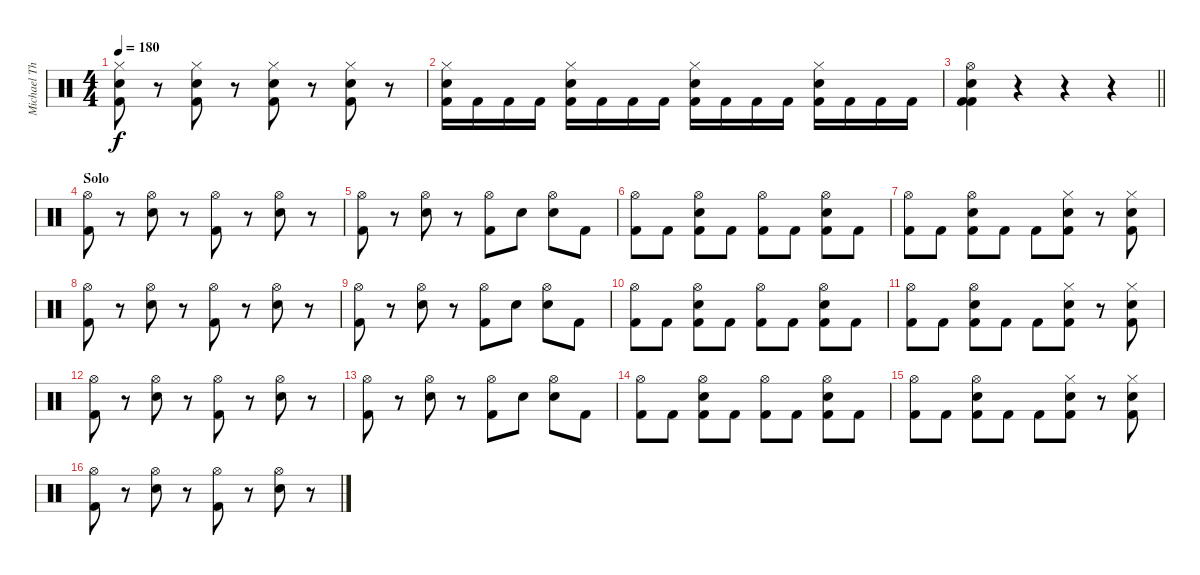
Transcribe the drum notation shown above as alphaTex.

\track ("Michael Thomas" "Michael Th") {instrument percussion}
\staff
\articulation defaults
\ts (4 4)
\tempo 180
\clef neutral
\ks c
("Hi-Hat (closed)" "Electric Snare (hit)" "Kick (hit) 2").8{dy f} r.8 ("Hi-Hat (closed)" "Electric Snare (hit)" "Kick (hit) 2").8 r.8 ("Hi-Hat (closed)" "Electric Snare (hit)" "Kick (hit) 2").8 r.8 ("Hi-Hat (closed)" "Electric Snare (hit)" "Kick (hit) 2").8 r.8 |
("Hi-Hat (closed)" "Electric Snare (hit)" "Kick (hit) 2").16 "Kick (hit) 2".16 "Kick (hit) 2".16 "Kick (hit) 2".16 ("Hi-Hat (closed)" "Electric Snare (hit)" "Kick (hit) 2").16 "Kick (hit) 2".16 "Kick (hit) 2".16 "Kick (hit) 2".16 ("Hi-Hat (closed)" "Electric Snare (hit)" "Kick (hit) 2").16 "Kick (hit) 2".16 "Kick (hit) 2".16 "Kick (hit) 2".16 ("Hi-Hat (closed)" "Electric Snare (hit)" "Kick (hit) 2").16 "Kick (hit) 2".16 "Kick (hit) 2".16 "Kick (hit) 2".16 |
\barLineRight lightlight
("Hi-Hat (open)" "Electric Snare (hit)" "Kick (hit) 2" "Kick (hit) 2").4 r.4 r.4 r.4 |
\section ("" "Solo")
("Hi-Hat (open)" "Kick (hit) 2").8 r.8 ("Hi-Hat (open)" "Electric Snare (hit)").8 r.8 ("Hi-Hat (open)" "Kick (hit) 2").8 r.8 ("Hi-Hat (open)" "Electric Snare (hit)").8 r.8 |
("Hi-Hat (open)" "Kick (hit) 2").8 r.8 ("Hi-Hat (open)" "Electric Snare (hit)").8 r.8 ("Hi-Hat (open)" "Kick (hit) 2").8 "Electric Snare (hit)".8 ("Hi-Hat (open)" "Electric Snare (hit)").8 "Kick (hit) 2".8 |
("Hi-Hat (open)" "Kick (hit) 2").8 "Kick (hit) 2".8 ("Hi-Hat (open)" "Electric Snare (hit)" "Kick (hit) 2").8 "Kick (hit) 2".8 ("Hi-Hat (open)" "Kick (hit) 2").8 "Kick (hit) 2".8 ("Hi-Hat (open)" "Electric Snare (hit)" "Kick (hit) 2").8 "Kick (hit) 2".8 |
("Hi-Hat (open)" "Kick (hit) 2").8 "Kick (hit) 2".8 ("Hi-Hat (open)" "Electric Snare (hit)" "Kick (hit) 2").8 "Kick (hit) 2".8 "Kick (hit) 2".8 ("Hi-Hat (closed)" "Electric Snare (hit)" "Kick (hit) 2").8 r.8 ("Hi-Hat (closed)" "Electric Snare (hit)" "Kick (hit) 2").8 |
("Hi-Hat (open)" "Kick (hit) 2").8 r.8 ("Hi-Hat (open)" "Electric Snare (hit)").8 r.8 ("Hi-Hat (open)" "Kick (hit) 2").8 r.8 ("Hi-Hat (open)" "Electric Snare (hit)").8 r.8 |
("Hi-Hat (open)" "Kick (hit) 2").8 r.8 ("Hi-Hat (open)" "Electric Snare (hit)").8 r.8 ("Hi-Hat (open)" "Kick (hit) 2").8 "Electric Snare (hit)".8 ("Hi-Hat (open)" "Electric Snare (hit)").8 "Kick (hit) 2".8 |
("Hi-Hat (open)" "Kick (hit) 2").8 "Kick (hit) 2".8 ("Hi-Hat (open)" "Electric Snare (hit)" "Kick (hit) 2").8 "Kick (hit) 2".8 ("Hi-Hat (open)" "Kick (hit) 2").8 "Kick (hit) 2".8 ("Hi-Hat (open)" "Electric Snare (hit)" "Kick (hit) 2").8 "Kick (hit) 2".8 |
("Hi-Hat (open)" "Kick (hit) 2").8 "Kick (hit) 2".8 ("Hi-Hat (open)" "Electric Snare (hit)" "Kick (hit) 2").8 "Kick (hit) 2".8 "Kick (hit) 2".8 ("Hi-Hat (closed)" "Electric Snare (hit)" "Kick (hit) 2").8 r.8 ("Hi-Hat (closed)" "Electric Snare (hit)" "Kick (hit) 2").8 |
("Hi-Hat (open)" "Kick (hit) 2").8 r.8 ("Hi-Hat (open)" "Electric Snare (hit)").8 r.8 ("Hi-Hat (open)" "Kick (hit) 2").8 r.8 ("Hi-Hat (open)" "Electric Snare (hit)").8 r.8 |
("Hi-Hat (open)" "Kick (hit) 2").8 r.8 ("Hi-Hat (open)" "Electric Snare (hit)").8 r.8 ("Hi-Hat (open)" "Kick (hit) 2").8 "Electric Snare (hit)".8 ("Hi-Hat (open)" "Electric Snare (hit)").8 "Kick (hit) 2".8 |
("Hi-Hat (open)" "Kick (hit) 2").8 "Kick (hit) 2".8 ("Hi-Hat (open)" "Electric Snare (hit)" "Kick (hit) 2").8 "Kick (hit) 2".8 ("Hi-Hat (open)" "Kick (hit) 2").8 "Kick (hit) 2".8 ("Hi-Hat (open)" "Electric Snare (hit)" "Kick (hit) 2").8 "Kick (hit) 2".8 |
("Hi-Hat (open)" "Kick (hit) 2").8 "Kick (hit) 2".8 ("Hi-Hat (open)" "Electric Snare (hit)" "Kick (hit) 2").8 "Kick (hit) 2".8 "Kick (hit) 2".8 ("Hi-Hat (closed)" "Electric Snare (hit)" "Kick (hit) 2").8 r.8 ("Hi-Hat (closed)" "Electric Snare (hit)" "Kick (hit) 2").8 |
("Hi-Hat (open)" "Kick (hit) 2").8 r.8 ("Hi-Hat (open)" "Electric Snare (hit)").8 r.8 ("Hi-Hat (open)" "Kick (hit) 2").8 r.8 ("Hi-Hat (open)" "Electric Snare (hit)").8 r.8
